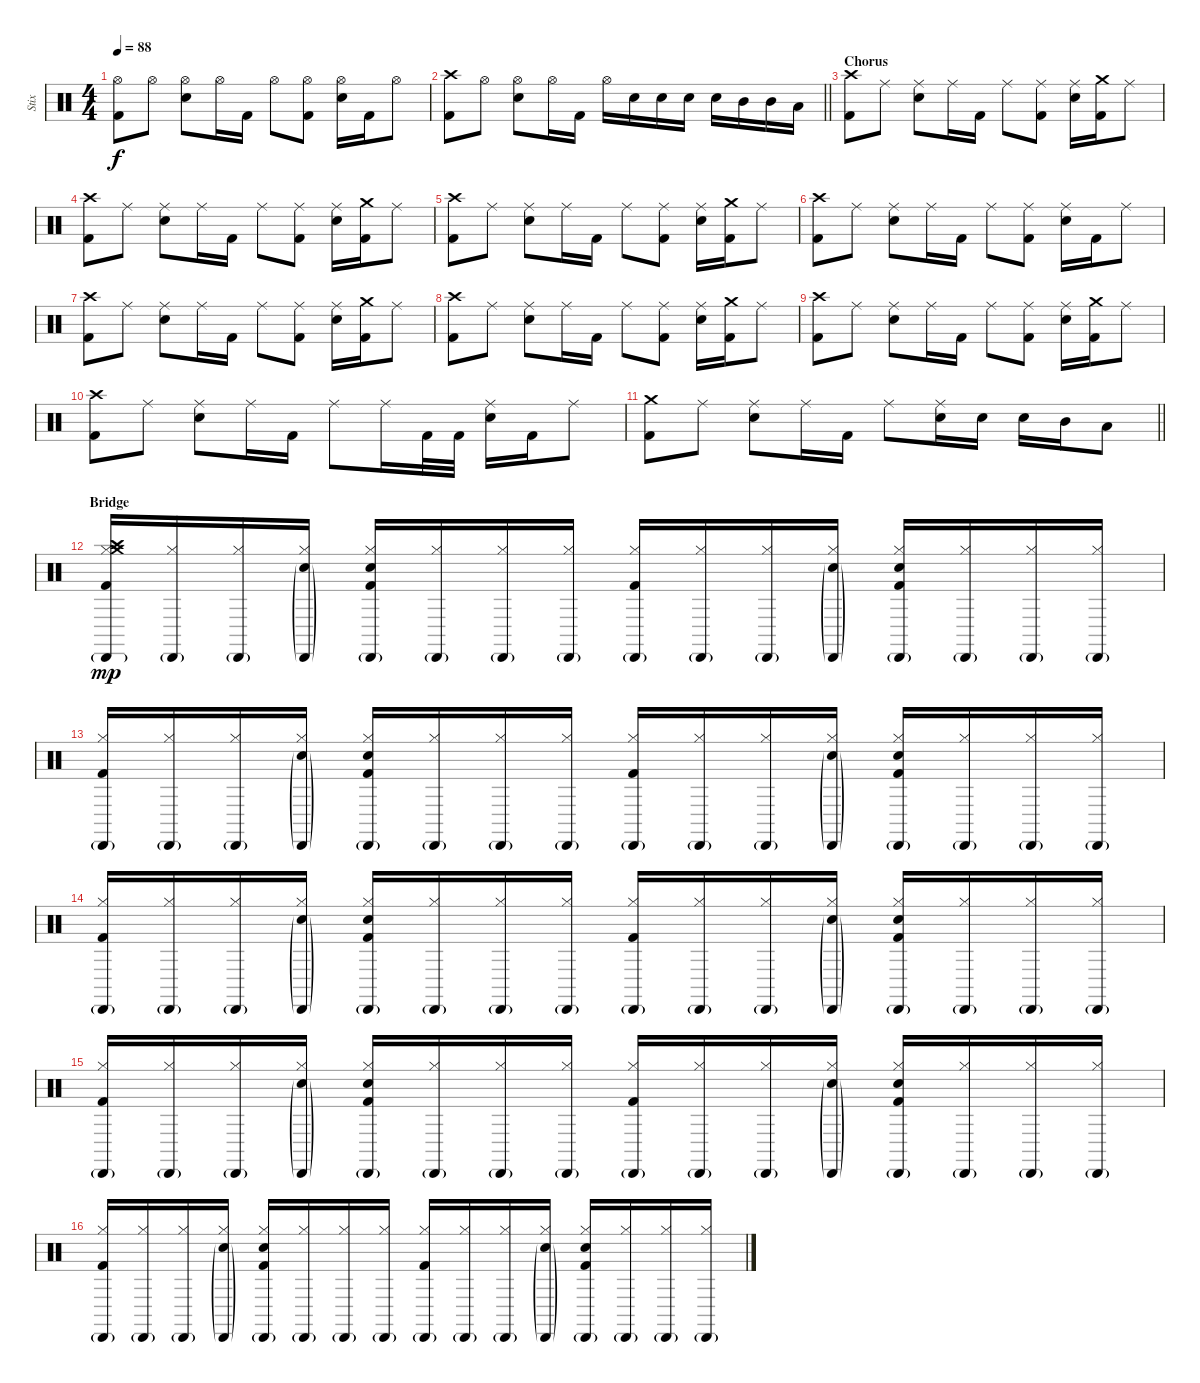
\track ("Stix" "Stix") {instrument percussion}
\staff {score}
\articulation defaults
\ts (4 4)
\tempo 88
\clef neutral
\ks c
("Hi-Hat (open)" "Kick (hit) 2").8{dy f} "Hi-Hat (open)".8 ("Hi-Hat (open)" "Electric Snare (hit)").8 "Hi-Hat (open)".16 "Kick (hit) 2".16 "Hi-Hat (open)".8 ("Hi-Hat (open)" "Kick (hit) 2").8 ("Hi-Hat (open)" "Electric Snare (hit)").16 "Kick (hit) 2".16 "Hi-Hat (open)".8 |
\barLineRight lightlight
("Crash high (hit)" "Kick (hit) 2").8 "Hi-Hat (open)".8 ("Hi-Hat (open)" "Electric Snare (hit)").8 "Hi-Hat (open)".16 "Kick (hit) 2".16 "Hi-Hat (open)".16 "Electric Snare (hit)".16 "Electric Snare (hit)".16 "Electric Snare (hit)".16 "Electric Snare (hit)".16 "Mid Tom (hit)".16 "Mid Tom (hit)".16 "Low Tom (hit)".16 |
\section ("" "Chorus")
("Crash high (hit)" "Kick (hit) 2").8 "Ride (middle)".8 ("Ride (middle)" "Electric Snare (hit)").8 "Ride (middle)".16 "Kick (hit) 2".16 "Ride (middle)".8 ("Ride (middle)" "Kick (hit) 2").8 ("Ride (middle)" "Electric Snare (hit)").16 ("Crash medium (hit)" "Kick (hit) 2").16 "Ride (middle)".8 |
("Crash high (hit)" "Kick (hit) 2").8 "Ride (middle)".8 ("Ride (middle)" "Electric Snare (hit)").8 "Ride (middle)".16 "Kick (hit) 2".16 "Ride (middle)".8 ("Ride (middle)" "Kick (hit) 2").8 ("Ride (middle)" "Electric Snare (hit)").16 ("Crash medium (hit)" "Kick (hit) 2").16 "Ride (middle)".8 |
("Crash high (hit)" "Kick (hit) 2").8 "Ride (middle)".8 ("Ride (middle)" "Electric Snare (hit)").8 "Ride (middle)".16 "Kick (hit) 2".16 "Ride (middle)".8 ("Ride (middle)" "Kick (hit) 2").8 ("Ride (middle)" "Electric Snare (hit)").16 ("Crash medium (hit)" "Kick (hit) 2").16 "Ride (middle)".8 |
("Crash high (hit)" "Kick (hit) 2").8 "Ride (middle)".8 ("Ride (middle)" "Electric Snare (hit)").8 "Ride (middle)".16 "Kick (hit) 2".16 "Ride (middle)".8 ("Ride (middle)" "Kick (hit) 2").8 ("Ride (middle)" "Electric Snare (hit)").16 "Kick (hit) 2".16 "Ride (middle)".8 |
("Crash high (hit)" "Kick (hit) 2").8 "Ride (middle)".8 ("Ride (middle)" "Electric Snare (hit)").8 "Ride (middle)".16 "Kick (hit) 2".16 "Ride (middle)".8 ("Ride (middle)" "Kick (hit) 2").8 ("Ride (middle)" "Electric Snare (hit)").16 ("Crash medium (hit)" "Kick (hit) 2").16 "Ride (middle)".8 |
("Crash high (hit)" "Kick (hit) 2").8 "Ride (middle)".8 ("Ride (middle)" "Electric Snare (hit)").8 "Ride (middle)".16 "Kick (hit) 2".16 "Ride (middle)".8 ("Ride (middle)" "Kick (hit) 2").8 ("Ride (middle)" "Electric Snare (hit)").16 ("Crash medium (hit)" "Kick (hit) 2").16 "Ride (middle)".8 |
("Crash high (hit)" "Kick (hit) 2").8 "Ride (middle)".8 ("Ride (middle)" "Electric Snare (hit)").8 "Ride (middle)".16 "Kick (hit) 2".16 "Ride (middle)".8 ("Ride (middle)" "Kick (hit) 2").8 ("Ride (middle)" "Electric Snare (hit)").16 ("Crash medium (hit)" "Kick (hit) 2").16 "Ride (middle)".8 |
("Crash high (hit)" "Kick (hit) 2").8 "Ride (middle)".8 ("Ride (middle)" "Electric Snare (hit)").8 "Ride (middle)".16 "Kick (hit) 2".16 "Ride (middle)".8 "Ride (middle)".16 "Kick (hit) 2".32 "Kick (hit) 2".32 ("Ride (middle)" "Electric Snare (hit)").16 "Kick (hit) 2".16 "Ride (middle)".8 |
\barLineRight lightlight
("Crash medium (hit)" "Kick (hit) 2").8 "Ride (middle)".8 ("Ride (middle)" "Electric Snare (hit)").8 "Ride (middle)".16 "Kick (hit) 2".16 "Ride (middle)".8 ("Ride (middle)" "Electric Snare (hit)").16 "Electric Snare (hit)".16 "Electric Snare (hit)".16 "Mid Tom (hit)".16 "Low Tom (hit)".8 |
\section ("" "Bridge")
("Crash high (hit)" "Cabasa (hit)"{g} "Hi-Hat (closed)" "Crash medium (hit)" "Kick (hit) 2").16{dy mp} ("Cabasa (hit)"{g} "Hi-Hat (closed)").16 ("Cabasa (hit)"{g} "Hi-Hat (closed)").16 ("Cabasa (hit)"{g} "Hi-Hat (closed)" "Electric Snare (hit)"{g}).16 ("Cabasa (hit)"{g} "Hi-Hat (closed)" "Electric Snare (hit)" "Kick (hit) 2").16 ("Cabasa (hit)"{g} "Hi-Hat (closed)").16 ("Cabasa (hit)"{g} "Hi-Hat (closed)").16 ("Cabasa (hit)"{g} "Hi-Hat (closed)").16 ("Cabasa (hit)"{g} "Hi-Hat (closed)" "Kick (hit) 2").16 ("Cabasa (hit)"{g} "Hi-Hat (closed)").16 ("Cabasa (hit)"{g} "Hi-Hat (closed)").16 ("Cabasa (hit)"{g} "Hi-Hat (closed)" "Electric Snare (hit)"{g}).16 ("Cabasa (hit)"{g} "Hi-Hat (closed)" "Electric Snare (hit)" "Kick (hit) 2").16 ("Cabasa (hit)"{g} "Hi-Hat (closed)").16 ("Cabasa (hit)"{g} "Hi-Hat (closed)").16 ("Cabasa (hit)"{g} "Hi-Hat (closed)").16 |
("Cabasa (hit)"{g} "Hi-Hat (closed)" "Kick (hit) 2").16 ("Cabasa (hit)"{g} "Hi-Hat (closed)").16 ("Cabasa (hit)"{g} "Hi-Hat (closed)").16 ("Cabasa (hit)"{g} "Hi-Hat (closed)" "Electric Snare (hit)"{g}).16 ("Cabasa (hit)"{g} "Hi-Hat (closed)" "Electric Snare (hit)" "Kick (hit) 2").16 ("Cabasa (hit)"{g} "Hi-Hat (closed)").16 ("Cabasa (hit)"{g} "Hi-Hat (closed)").16 ("Cabasa (hit)"{g} "Hi-Hat (closed)").16 ("Cabasa (hit)"{g} "Hi-Hat (closed)" "Kick (hit) 2").16 ("Cabasa (hit)"{g} "Hi-Hat (closed)").16 ("Cabasa (hit)"{g} "Hi-Hat (closed)").16 ("Cabasa (hit)"{g} "Hi-Hat (closed)" "Electric Snare (hit)"{g}).16 ("Cabasa (hit)"{g} "Hi-Hat (closed)" "Electric Snare (hit)" "Kick (hit) 2").16 ("Cabasa (hit)"{g} "Hi-Hat (closed)").16 ("Cabasa (hit)"{g} "Hi-Hat (closed)").16 ("Cabasa (hit)"{g} "Hi-Hat (closed)").16 |
("Cabasa (hit)"{g} "Hi-Hat (closed)" "Kick (hit) 2").16 ("Cabasa (hit)"{g} "Hi-Hat (closed)").16 ("Cabasa (hit)"{g} "Hi-Hat (closed)").16 ("Cabasa (hit)"{g} "Hi-Hat (closed)" "Electric Snare (hit)"{g}).16 ("Cabasa (hit)"{g} "Hi-Hat (closed)" "Electric Snare (hit)" "Kick (hit) 2").16 ("Cabasa (hit)"{g} "Hi-Hat (closed)").16 ("Cabasa (hit)"{g} "Hi-Hat (closed)").16 ("Cabasa (hit)"{g} "Hi-Hat (closed)").16 ("Cabasa (hit)"{g} "Hi-Hat (closed)" "Kick (hit) 2").16 ("Cabasa (hit)"{g} "Hi-Hat (closed)").16 ("Cabasa (hit)"{g} "Hi-Hat (closed)").16 ("Cabasa (hit)"{g} "Hi-Hat (closed)" "Electric Snare (hit)"{g}).16 ("Cabasa (hit)"{g} "Hi-Hat (closed)" "Electric Snare (hit)" "Kick (hit) 2").16 ("Cabasa (hit)"{g} "Hi-Hat (closed)").16 ("Cabasa (hit)"{g} "Hi-Hat (closed)").16 ("Cabasa (hit)"{g} "Hi-Hat (closed)").16 |
("Cabasa (hit)"{g} "Hi-Hat (closed)" "Kick (hit) 2").16 ("Cabasa (hit)"{g} "Hi-Hat (closed)").16 ("Cabasa (hit)"{g} "Hi-Hat (closed)").16 ("Cabasa (hit)"{g} "Hi-Hat (closed)" "Electric Snare (hit)"{g}).16 ("Cabasa (hit)"{g} "Hi-Hat (closed)" "Electric Snare (hit)" "Kick (hit) 2").16 ("Cabasa (hit)"{g} "Hi-Hat (closed)").16 ("Cabasa (hit)"{g} "Hi-Hat (closed)").16 ("Cabasa (hit)"{g} "Hi-Hat (closed)").16 ("Cabasa (hit)"{g} "Hi-Hat (closed)" "Kick (hit) 2").16 ("Cabasa (hit)"{g} "Hi-Hat (closed)").16 ("Cabasa (hit)"{g} "Hi-Hat (closed)").16 ("Cabasa (hit)"{g} "Hi-Hat (closed)" "Electric Snare (hit)"{g}).16 ("Cabasa (hit)"{g} "Hi-Hat (closed)" "Electric Snare (hit)" "Kick (hit) 2").16 ("Cabasa (hit)"{g} "Hi-Hat (closed)").16 ("Cabasa (hit)"{g} "Hi-Hat (closed)").16 ("Cabasa (hit)"{g} "Hi-Hat (closed)").16 |
("Cabasa (hit)"{g} "Hi-Hat (closed)" "Kick (hit) 2").16 ("Cabasa (hit)"{g} "Hi-Hat (closed)").16 ("Cabasa (hit)"{g} "Hi-Hat (closed)").16 ("Cabasa (hit)"{g} "Hi-Hat (closed)" "Electric Snare (hit)"{g}).16 ("Cabasa (hit)"{g} "Hi-Hat (closed)" "Electric Snare (hit)" "Kick (hit) 2").16 ("Cabasa (hit)"{g} "Hi-Hat (closed)").16 ("Cabasa (hit)"{g} "Hi-Hat (closed)").16 ("Cabasa (hit)"{g} "Hi-Hat (closed)").16 ("Cabasa (hit)"{g} "Hi-Hat (closed)" "Kick (hit) 2").16 ("Cabasa (hit)"{g} "Hi-Hat (closed)").16 ("Cabasa (hit)"{g} "Hi-Hat (closed)").16 ("Cabasa (hit)"{g} "Hi-Hat (closed)" "Electric Snare (hit)"{g}).16 ("Cabasa (hit)"{g} "Hi-Hat (closed)" "Electric Snare (hit)" "Kick (hit) 2").16 ("Cabasa (hit)"{g} "Hi-Hat (closed)").16 ("Cabasa (hit)"{g} "Hi-Hat (closed)").16 ("Cabasa (hit)"{g} "Hi-Hat (closed)").16
